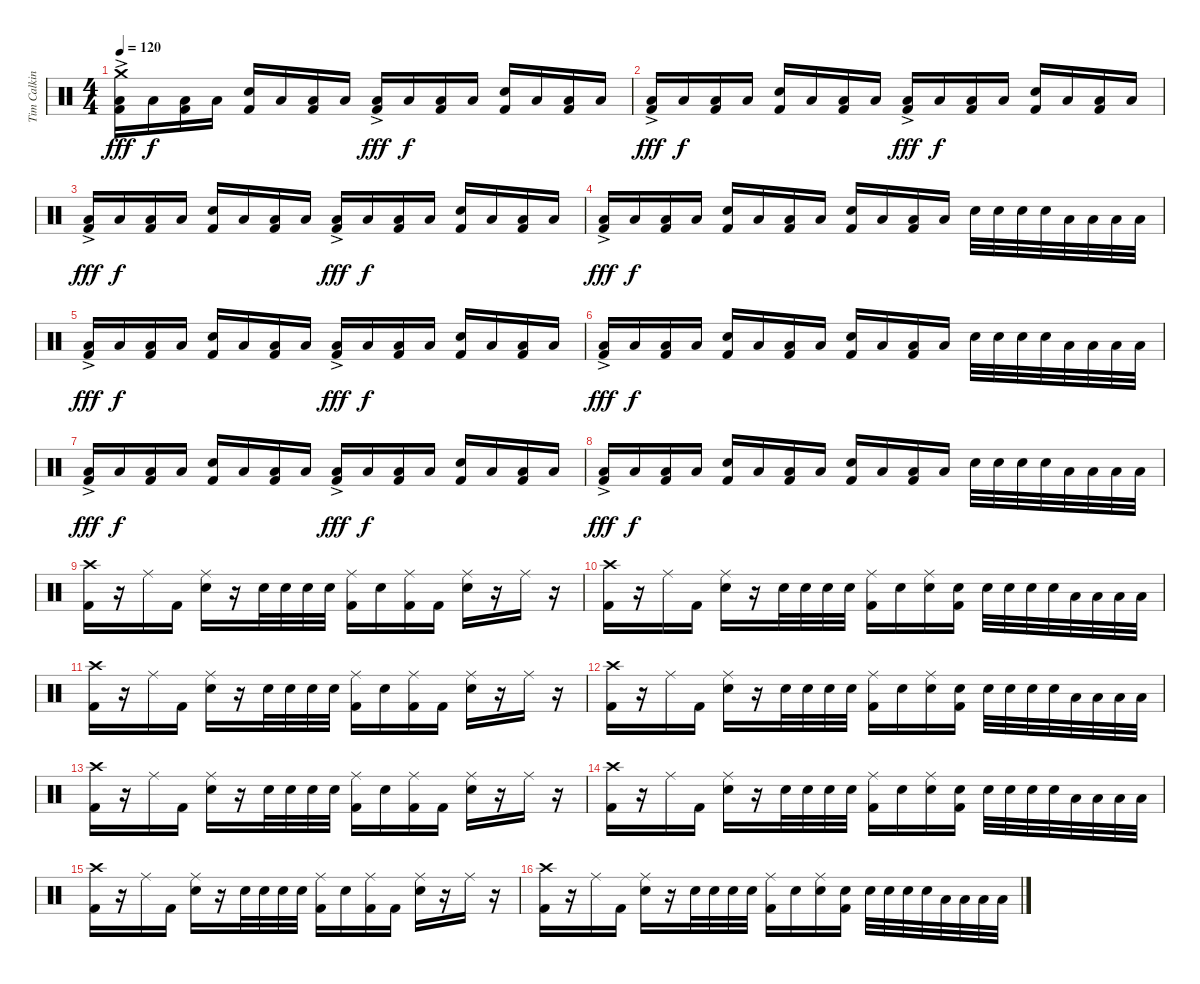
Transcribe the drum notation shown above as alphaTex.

\track ("Tim Calkin" "Tim Calkin") {instrument percussion}
\staff {score}
\articulation defaults
\ts (4 4)
\tempo 120
\clef neutral
\ks c
("Crash medium (hit)" "Low Floor Tom (hit)"{ac} "Kick (hit) 2").16{dy fff} "Low Tom (hit)".16{dy f} ("Low Floor Tom (hit)" "Kick (hit) 2").16 "Low Tom (hit)".16 ("Snare (hit) 2" "Kick (hit) 2").16 "Low Tom (hit)".16 ("Low Floor Tom (hit)" "Kick (hit) 2").16 "Low Tom (hit)".16 ("Low Floor Tom (hit)"{ac} "Kick (hit) 2").16{dy fff} "Low Tom (hit)".16{dy f} ("Low Floor Tom (hit)" "Kick (hit) 2").16 "Low Tom (hit)".16 ("Snare (hit) 2" "Kick (hit) 2").16 "Low Tom (hit)".16 ("Low Floor Tom (hit)" "Kick (hit) 2").16 "Low Tom (hit)".16 |
("Low Floor Tom (hit)"{ac} "Kick (hit) 2").16{dy fff} "Low Tom (hit)".16{dy f} ("Low Floor Tom (hit)" "Kick (hit) 2").16 "Low Tom (hit)".16 ("Snare (hit) 2" "Kick (hit) 2").16 "Low Tom (hit)".16 ("Low Floor Tom (hit)" "Kick (hit) 2").16 "Low Tom (hit)".16 ("Low Floor Tom (hit)"{ac} "Kick (hit) 2").16{dy fff} "Low Tom (hit)".16{dy f} ("Low Floor Tom (hit)" "Kick (hit) 2").16 "Low Tom (hit)".16 ("Snare (hit) 2" "Kick (hit) 2").16 "Low Tom (hit)".16 ("Low Floor Tom (hit)" "Kick (hit) 2").16 "Low Tom (hit)".16 |
("Low Floor Tom (hit)"{ac} "Kick (hit) 2").16{dy fff} "Low Tom (hit)".16{dy f} ("Low Floor Tom (hit)" "Kick (hit) 2").16 "Low Tom (hit)".16 ("Snare (hit) 2" "Kick (hit) 2").16 "Low Tom (hit)".16 ("Low Floor Tom (hit)" "Kick (hit) 2").16 "Low Tom (hit)".16 ("Low Floor Tom (hit)"{ac} "Kick (hit) 2").16{dy fff} "Low Tom (hit)".16{dy f} ("Low Floor Tom (hit)" "Kick (hit) 2").16 "Low Tom (hit)".16 ("Snare (hit) 2" "Kick (hit) 2").16 "Low Tom (hit)".16 ("Low Floor Tom (hit)" "Kick (hit) 2").16 "Low Tom (hit)".16 |
("Low Floor Tom (hit)"{ac} "Kick (hit) 2").16{dy fff} "Low Tom (hit)".16{dy f} ("Low Floor Tom (hit)" "Kick (hit) 2").16 "Low Tom (hit)".16 ("Snare (hit) 2" "Kick (hit) 2").16 "Low Tom (hit)".16 ("Low Floor Tom (hit)" "Kick (hit) 2").16 "Low Tom (hit)".16 ("Snare (hit) 2" "Kick (hit) 2").16 "Low Tom (hit)".16 ("Low Floor Tom (hit)" "Kick (hit) 2").16 "Low Tom (hit)".16 "Snare (hit) 2".32 "Snare (hit) 2".32 "Snare (hit) 2".32 "Snare (hit) 2".32 "Low Tom (hit)".32 "Low Tom (hit)".32 "Low Floor Tom (hit)".32 "Low Floor Tom (hit)".32 |
("Low Floor Tom (hit)"{ac} "Kick (hit) 2").16{dy fff} "Low Tom (hit)".16{dy f} ("Low Floor Tom (hit)" "Kick (hit) 2").16 "Low Tom (hit)".16 ("Snare (hit) 2" "Kick (hit) 2").16 "Low Tom (hit)".16 ("Low Floor Tom (hit)" "Kick (hit) 2").16 "Low Tom (hit)".16 ("Low Floor Tom (hit)"{ac} "Kick (hit) 2").16{dy fff} "Low Tom (hit)".16{dy f} ("Low Floor Tom (hit)" "Kick (hit) 2").16 "Low Tom (hit)".16 ("Snare (hit) 2" "Kick (hit) 2").16 "Low Tom (hit)".16 ("Low Floor Tom (hit)" "Kick (hit) 2").16 "Low Tom (hit)".16 |
("Low Floor Tom (hit)"{ac} "Kick (hit) 2").16{dy fff} "Low Tom (hit)".16{dy f} ("Low Floor Tom (hit)" "Kick (hit) 2").16 "Low Tom (hit)".16 ("Snare (hit) 2" "Kick (hit) 2").16 "Low Tom (hit)".16 ("Low Floor Tom (hit)" "Kick (hit) 2").16 "Low Tom (hit)".16 ("Snare (hit) 2" "Kick (hit) 2").16 "Low Tom (hit)".16 ("Low Floor Tom (hit)" "Kick (hit) 2").16 "Low Tom (hit)".16 "Snare (hit) 2".32 "Snare (hit) 2".32 "Snare (hit) 2".32 "Snare (hit) 2".32 "Low Tom (hit)".32 "Low Tom (hit)".32 "Low Floor Tom (hit)".32 "Low Floor Tom (hit)".32 |
("Low Floor Tom (hit)"{ac} "Kick (hit) 2").16{dy fff} "Low Tom (hit)".16{dy f} ("Low Floor Tom (hit)" "Kick (hit) 2").16 "Low Tom (hit)".16 ("Snare (hit) 2" "Kick (hit) 2").16 "Low Tom (hit)".16 ("Low Floor Tom (hit)" "Kick (hit) 2").16 "Low Tom (hit)".16 ("Low Floor Tom (hit)"{ac} "Kick (hit) 2").16{dy fff} "Low Tom (hit)".16{dy f} ("Low Floor Tom (hit)" "Kick (hit) 2").16 "Low Tom (hit)".16 ("Snare (hit) 2" "Kick (hit) 2").16 "Low Tom (hit)".16 ("Low Floor Tom (hit)" "Kick (hit) 2").16 "Low Tom (hit)".16 |
("Low Floor Tom (hit)"{ac} "Kick (hit) 2").16{dy fff} "Low Tom (hit)".16{dy f} ("Low Floor Tom (hit)" "Kick (hit) 2").16 "Low Tom (hit)".16 ("Snare (hit) 2" "Kick (hit) 2").16 "Low Tom (hit)".16 ("Low Floor Tom (hit)" "Kick (hit) 2").16 "Low Tom (hit)".16 ("Snare (hit) 2" "Kick (hit) 2").16 "Low Tom (hit)".16 ("Low Floor Tom (hit)" "Kick (hit) 2").16 "Low Tom (hit)".16 "Snare (hit) 2".32 "Snare (hit) 2".32 "Snare (hit) 2".32 "Snare (hit) 2".32 "Low Tom (hit)".32 "Low Tom (hit)".32 "Low Floor Tom (hit)".32 "Low Floor Tom (hit)".32 |
("Crash high (hit)" "Kick (hit) 2").16 r.16 "Ride (middle)".16 "Kick (hit) 2".16 ("Ride (middle)" "Snare (hit) 2").16 r.16 "Snare (hit) 2".32 "Snare (hit) 2".32 "Snare (hit) 2".32 "Snare (hit) 2".32 ("Ride (middle)" "Kick (hit) 2").16 "Snare (hit) 2".16 ("Ride (middle)" "Kick (hit) 2").16 "Kick (hit) 2".16 ("Ride (middle)" "Snare (hit) 2").16 r.16 "Ride (middle)".16 r.16 |
("Crash high (hit)" "Kick (hit) 2").16 r.16 "Ride (middle)".16 "Kick (hit) 2".16 ("Ride (middle)" "Snare (hit) 2").16 r.16 "Snare (hit) 2".32 "Snare (hit) 2".32 "Snare (hit) 2".32 "Snare (hit) 2".32 ("Ride (middle)" "Kick (hit) 2").16 "Snare (hit) 2".16 ("Ride (middle)" "Snare (hit) 2").16 ("Snare (hit) 2" "Kick (hit) 2").16 "Snare (hit) 2".32 "Snare (hit) 2".32 "Snare (hit) 2".32 "Snare (hit) 2".32 "Low Tom (hit)".32 "Low Tom (hit)".32 "Low Floor Tom (hit)".32 "Low Floor Tom (hit)".32 |
("Crash high (hit)" "Kick (hit) 2").16 r.16 "Ride (middle)".16 "Kick (hit) 2".16 ("Ride (middle)" "Snare (hit) 2").16 r.16 "Snare (hit) 2".32 "Snare (hit) 2".32 "Snare (hit) 2".32 "Snare (hit) 2".32 ("Ride (middle)" "Kick (hit) 2").16 "Snare (hit) 2".16 ("Ride (middle)" "Kick (hit) 2").16 "Kick (hit) 2".16 ("Ride (middle)" "Snare (hit) 2").16 r.16 "Ride (middle)".16 r.16 |
("Crash high (hit)" "Kick (hit) 2").16 r.16 "Ride (middle)".16 "Kick (hit) 2".16 ("Ride (middle)" "Snare (hit) 2").16 r.16 "Snare (hit) 2".32 "Snare (hit) 2".32 "Snare (hit) 2".32 "Snare (hit) 2".32 ("Ride (middle)" "Kick (hit) 2").16 "Snare (hit) 2".16 ("Ride (middle)" "Snare (hit) 2").16 ("Snare (hit) 2" "Kick (hit) 2").16 "Snare (hit) 2".32 "Snare (hit) 2".32 "Snare (hit) 2".32 "Snare (hit) 2".32 "Low Tom (hit)".32 "Low Tom (hit)".32 "Low Floor Tom (hit)".32 "Low Floor Tom (hit)".32 |
("Crash high (hit)" "Kick (hit) 2").16 r.16 "Ride (middle)".16 "Kick (hit) 2".16 ("Ride (middle)" "Snare (hit) 2").16 r.16 "Snare (hit) 2".32 "Snare (hit) 2".32 "Snare (hit) 2".32 "Snare (hit) 2".32 ("Ride (middle)" "Kick (hit) 2").16 "Snare (hit) 2".16 ("Ride (middle)" "Kick (hit) 2").16 "Kick (hit) 2".16 ("Ride (middle)" "Snare (hit) 2").16 r.16 "Ride (middle)".16 r.16 |
("Crash high (hit)" "Kick (hit) 2").16 r.16 "Ride (middle)".16 "Kick (hit) 2".16 ("Ride (middle)" "Snare (hit) 2").16 r.16 "Snare (hit) 2".32 "Snare (hit) 2".32 "Snare (hit) 2".32 "Snare (hit) 2".32 ("Ride (middle)" "Kick (hit) 2").16 "Snare (hit) 2".16 ("Ride (middle)" "Snare (hit) 2").16 ("Snare (hit) 2" "Kick (hit) 2").16 "Snare (hit) 2".32 "Snare (hit) 2".32 "Snare (hit) 2".32 "Snare (hit) 2".32 "Low Tom (hit)".32 "Low Tom (hit)".32 "Low Floor Tom (hit)".32 "Low Floor Tom (hit)".32 |
("Crash high (hit)" "Kick (hit) 2").16 r.16 "Ride (middle)".16 "Kick (hit) 2".16 ("Ride (middle)" "Snare (hit) 2").16 r.16 "Snare (hit) 2".32 "Snare (hit) 2".32 "Snare (hit) 2".32 "Snare (hit) 2".32 ("Ride (middle)" "Kick (hit) 2").16 "Snare (hit) 2".16 ("Ride (middle)" "Kick (hit) 2").16 "Kick (hit) 2".16 ("Ride (middle)" "Snare (hit) 2").16 r.16 "Ride (middle)".16 r.16 |
("Crash high (hit)" "Kick (hit) 2").16 r.16 "Ride (middle)".16 "Kick (hit) 2".16 ("Ride (middle)" "Snare (hit) 2").16 r.16 "Snare (hit) 2".32 "Snare (hit) 2".32 "Snare (hit) 2".32 "Snare (hit) 2".32 ("Ride (middle)" "Kick (hit) 2").16 "Snare (hit) 2".16 ("Ride (middle)" "Snare (hit) 2").16 ("Snare (hit) 2" "Kick (hit) 2").16 "Snare (hit) 2".32 "Snare (hit) 2".32 "Snare (hit) 2".32 "Snare (hit) 2".32 "Low Tom (hit)".32 "Low Tom (hit)".32 "Low Floor Tom (hit)".32 "Low Floor Tom (hit)".32
